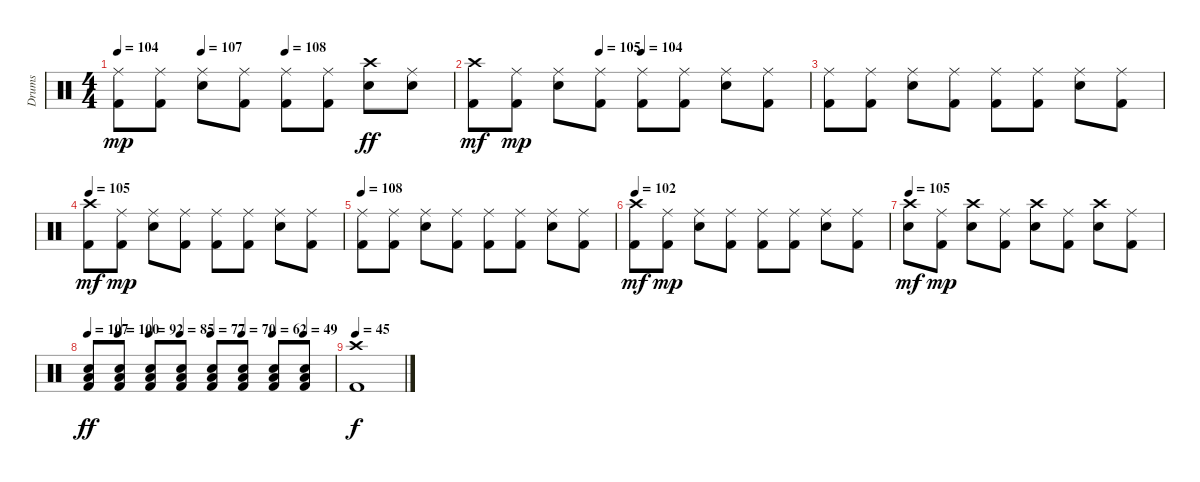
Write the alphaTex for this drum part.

\track ("Drums" "Drums") {instrument percussion}
\staff {score}
\articulation defaults
\ts (4 4)
\tempo 104
\tempo (107 0.25)
\tempo (108 0.5)
\clef neutral
\ks c
("Kick (hit) 2" "Ride (middle)").8{dy mp} ("Ride (middle)" "Kick (hit) 2").8 ("Electric Snare (hit)" "Ride (middle)").8 ("Ride (middle)" "Kick (hit) 2").8 ("Ride (middle)" "Kick (hit) 2").8 ("Kick (hit) 2" "Ride (middle)").8 ("Crash high (hit)" "Electric Snare (hit)").8{dy ff} ("Ride (middle)" "Electric Snare (hit)").8 |
\tempo (105 0.375)
\tempo (104 0.5)
("Kick (hit) 2" "Crash high (hit)").8{dy mf} ("Kick (hit) 2" "Ride (middle)").8{dy mp} ("Electric Snare (hit)" "Ride (middle)").8 ("Kick (hit) 2" "Ride (middle)").8 ("Ride (middle)" "Kick (hit) 2").8 ("Ride (middle)" "Kick (hit) 2").8 ("Ride (middle)" "Electric Snare (hit)").8 ("Ride (middle)" "Kick (hit) 2").8 |
("Ride (middle)" "Kick (hit) 2").8 ("Ride (middle)" "Kick (hit) 2").8 ("Ride (middle)" "Electric Snare (hit)").8 ("Kick (hit) 2" "Ride (middle)").8 ("Ride (middle)" "Kick (hit) 2").8 ("Ride (middle)" "Kick (hit) 2").8 ("Electric Snare (hit)" "Ride (middle)").8 ("Kick (hit) 2" "Ride (middle)").8 |
\tempo 105
("Crash high (hit)" "Kick (hit) 2").8{dy mf} ("Kick (hit) 2" "Ride (middle)").8{dy mp} ("Ride (middle)" "Electric Snare (hit)").8 ("Kick (hit) 2" "Ride (middle)").8 ("Ride (middle)" "Kick (hit) 2").8 ("Ride (middle)" "Kick (hit) 2").8 ("Electric Snare (hit)" "Ride (middle)").8 ("Ride (middle)" "Kick (hit) 2").8 |
\tempo 108
("Kick (hit) 2" "Ride (middle)").8 ("Kick (hit) 2" "Ride (middle)").8 ("Electric Snare (hit)" "Ride (middle)").8 ("Ride (middle)" "Kick (hit) 2").8 ("Ride (middle)" "Kick (hit) 2").8 ("Kick (hit) 2" "Ride (middle)").8 ("Electric Snare (hit)" "Ride (middle)").8 ("Ride (middle)" "Kick (hit) 2").8 |
\tempo 102
("Kick (hit) 2" "Crash high (hit)").8{dy mf} ("Ride (middle)" "Kick (hit) 2").8{dy mp} ("Ride (middle)" "Electric Snare (hit)").8 ("Ride (middle)" "Kick (hit) 2").8 ("Ride (middle)" "Kick (hit) 2").8 ("Ride (middle)" "Kick (hit) 2").8 ("Ride (middle)" "Electric Snare (hit)").8 ("Kick (hit) 2" "Ride (middle)").8 |
\tempo 105
("Crash high (hit)" "Electric Snare (hit)").8{dy mf} ("Kick (hit) 2" "Ride (middle)").8{dy mp} ("Electric Snare (hit)" "Crash high (hit)").8 ("Ride (middle)" "Kick (hit) 2").8 ("Electric Snare (hit)" "Crash high (hit)").8 ("Ride (middle)" "Kick (hit) 2").8 ("Electric Snare (hit)" "Crash high (hit)").8 ("Ride (middle)" "Kick (hit) 2").8 |
\tempo 107
\tempo (100 0.125)
\tempo (92 0.25)
\tempo (85 0.375)
\tempo (77 0.5)
\tempo (70 0.625)
\tempo (62 0.75)
\tempo (49 0.875)
("Electric Snare (hit)" "Low Floor Tom (hit)" "Kick (hit) 2").8{dy ff} ("Low Floor Tom (hit)" "Kick (hit) 2" "Electric Snare (hit)").8 ("Low Floor Tom (hit)" "Electric Snare (hit)" "Kick (hit) 2").8 ("Kick (hit) 2" "Low Floor Tom (hit)" "Electric Snare (hit)").8 ("Kick (hit) 2" "Electric Snare (hit)" "Low Floor Tom (hit)").8 ("Electric Snare (hit)" "Kick (hit) 2" "Low Floor Tom (hit)").8 ("Electric Snare (hit)" "Low Floor Tom (hit)" "Kick (hit) 2").8 ("Electric Snare (hit)" "Low Floor Tom (hit)" "Kick (hit) 2").8 |
\tempo 45
("Kick (hit) 2" "Crash high (hit)").1{dy f}
